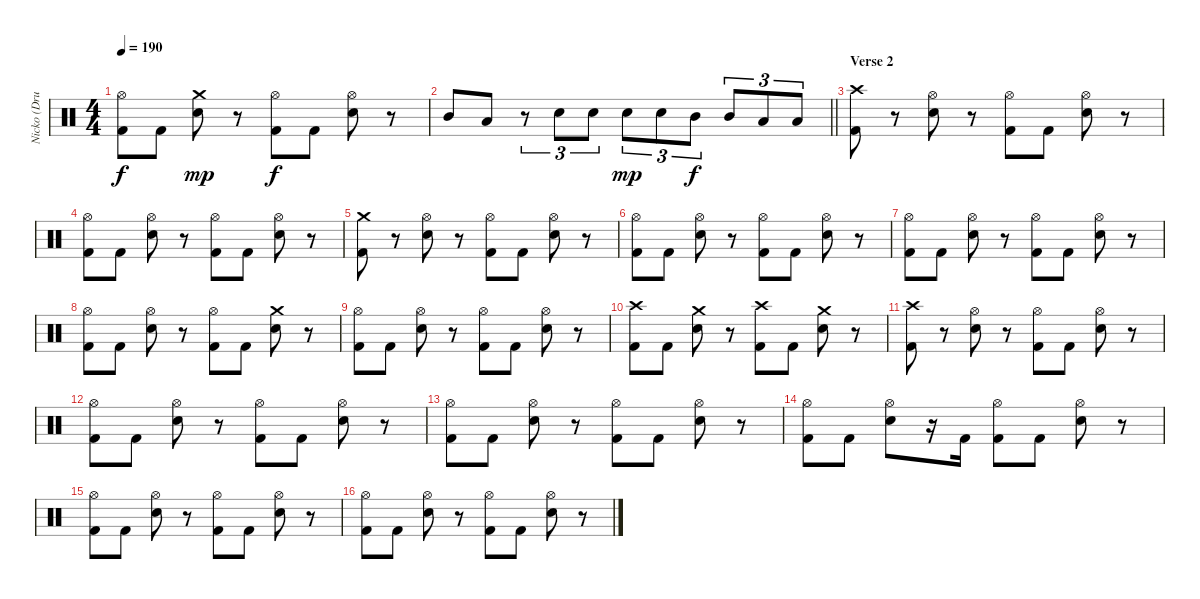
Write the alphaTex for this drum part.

\track ("Nicko (Drums)" "Nicko (Dru") {instrument percussion}
\staff {score}
\articulation defaults
\ts (4 4)
\tempo 190
\clef neutral
\ks c
("Hi-Hat (open)" "Kick (hit) 2").8{dy f} "Kick (hit) 2".8 ("Crash medium (hit)" "Snare (hit) 2").8{dy mp} r.8 ("Hi-Hat (open)" "Kick (hit) 2").8{dy f} "Kick (hit) 2".8 ("Hi-Hat (open)" "Snare (hit) 2").8 r.8 |
\barLineRight lightlight "Mid Tom (hit)".8 "Low Tom (hit)".8
r.8{tu (3 2)} "Snare (hit) 2".8{tu (3 2)} "Snare (hit) 2".8{tu (3 2)} "Snare (hit) 2".8{tu (3 2) dy mp} "Snare (hit) 2".8{tu (3 2)} "Mid Tom (hit)".8{tu (3 2) dy f} "Mid Tom (hit)".8{tu (3 2)} "Low Tom (hit)".8{tu (3 2)} "Low Tom (hit)".8{tu (3 2)} |
\section ("" "Verse 2")
("Crash high (hit)" "Kick (hit) 2").8 r.8 ("Hi-Hat (open)" "Snare (hit) 2").8 r.8 ("Hi-Hat (open)" "Kick (hit) 2").8 "Kick (hit) 2".8 ("Hi-Hat (open)" "Snare (hit) 2").8 r.8 |
("Hi-Hat (open)" "Kick (hit) 2").8 "Kick (hit) 2".8 ("Hi-Hat (open)" "Snare (hit) 2").8 r.8 ("Hi-Hat (open)" "Kick (hit) 2").8 "Kick (hit) 2".8 ("Hi-Hat (open)" "Snare (hit) 2").8 r.8 |
("Crash medium (hit)" "Kick (hit) 2").8 r.8 ("Hi-Hat (open)" "Snare (hit) 2").8 r.8 ("Hi-Hat (open)" "Kick (hit) 2").8 "Kick (hit) 2".8 ("Hi-Hat (open)" "Snare (hit) 2").8 r.8 |
("Hi-Hat (open)" "Kick (hit) 2").8 "Kick (hit) 2".8 ("Hi-Hat (open)" "Snare (hit) 2").8 r.8 ("Hi-Hat (open)" "Kick (hit) 2").8 "Kick (hit) 2".8 ("Hi-Hat (open)" "Snare (hit) 2").8 r.8 |
("Hi-Hat (open)" "Kick (hit) 2").8 "Kick (hit) 2".8 ("Hi-Hat (open)" "Snare (hit) 2").8 r.8 ("Hi-Hat (open)" "Kick (hit) 2").8 "Kick (hit) 2".8 ("Hi-Hat (open)" "Snare (hit) 2").8 r.8 |
("Hi-Hat (open)" "Kick (hit) 2").8 "Kick (hit) 2".8 ("Hi-Hat (open)" "Snare (hit) 2").8 r.8 ("Hi-Hat (open)" "Kick (hit) 2").8 "Kick (hit) 2".8 ("Crash medium (hit)" "Snare (hit) 2").8 r.8 |
("Hi-Hat (open)" "Kick (hit) 2").8 "Kick (hit) 2".8 ("Hi-Hat (open)" "Snare (hit) 2").8 r.8 ("Hi-Hat (open)" "Kick (hit) 2").8 "Kick (hit) 2".8 ("Hi-Hat (open)" "Snare (hit) 2").8 r.8 |
("Crash high (hit)" "Kick (hit) 2").8 "Kick (hit) 2".8 ("Crash medium (hit)" "Snare (hit) 2").8 r.8 ("Crash high (hit)" "Kick (hit) 2").8 "Kick (hit) 2".8 ("Crash medium (hit)" "Snare (hit) 2").8 r.8 |
("Crash high (hit)" "Kick (hit) 2").8 r.8 ("Hi-Hat (open)" "Snare (hit) 2").8 r.8 ("Hi-Hat (open)" "Kick (hit) 2").8 "Kick (hit) 2".8 ("Hi-Hat (open)" "Snare (hit) 2").8 r.8 |
("Hi-Hat (open)" "Kick (hit) 2").8 "Kick (hit) 2".8 ("Hi-Hat (open)" "Snare (hit) 2").8 r.8 ("Hi-Hat (open)" "Kick (hit) 2").8 "Kick (hit) 2".8 ("Hi-Hat (open)" "Snare (hit) 2").8 r.8 |
("Hi-Hat (open)" "Kick (hit) 2").8 "Kick (hit) 2".8 ("Hi-Hat (open)" "Snare (hit) 2").8 r.8 ("Hi-Hat (open)" "Kick (hit) 2").8 "Kick (hit) 2".8 ("Hi-Hat (open)" "Snare (hit) 2").8 r.8 |
("Hi-Hat (open)" "Kick (hit) 2").8 "Kick (hit) 2".8 ("Hi-Hat (open)" "Snare (hit) 2").8 r.16 "Kick (hit) 2".16 ("Hi-Hat (open)" "Kick (hit) 2").8 "Kick (hit) 2".8 ("Hi-Hat (open)" "Snare (hit) 2").8 r.8 |
("Hi-Hat (open)" "Kick (hit) 2").8 "Kick (hit) 2".8 ("Hi-Hat (open)" "Snare (hit) 2").8 r.8 ("Hi-Hat (open)" "Kick (hit) 2").8 "Kick (hit) 2".8 ("Hi-Hat (open)" "Snare (hit) 2").8 r.8 |
("Hi-Hat (open)" "Kick (hit) 2").8 "Kick (hit) 2".8 ("Hi-Hat (open)" "Snare (hit) 2").8 r.8 ("Hi-Hat (open)" "Kick (hit) 2").8 "Kick (hit) 2".8 ("Hi-Hat (open)" "Snare (hit) 2").8 r.8
